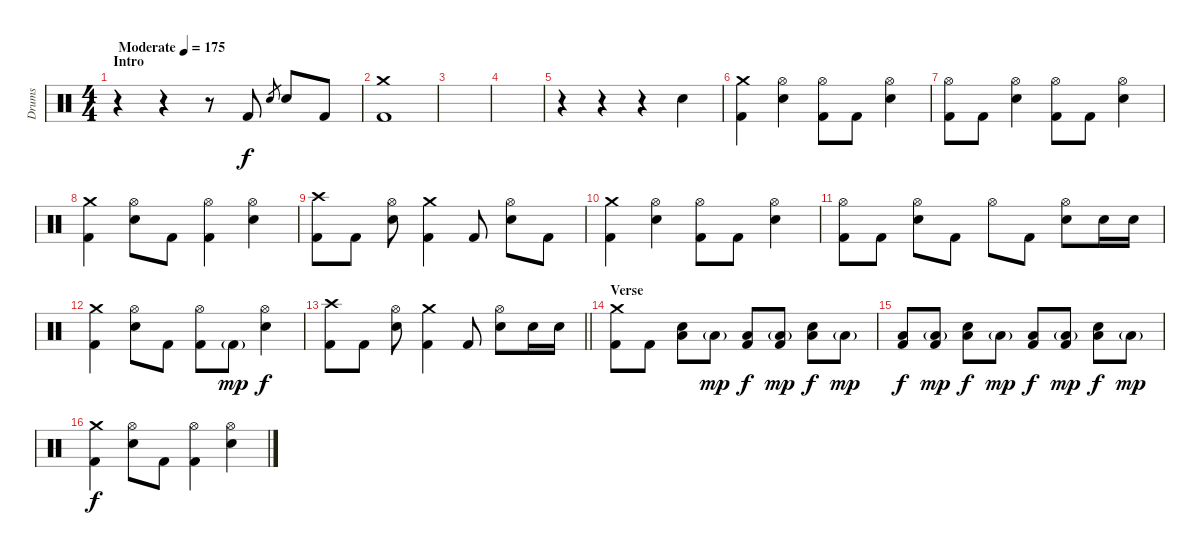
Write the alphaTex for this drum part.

\track ("Drums" "Drums") {instrument percussion}
\staff {score}
\articulation defaults
\ts (4 4)
\section ("" "Intro")
\tempo (175 "Moderate")
\clef neutral
\ks c
r.4{dy f} r.4 r.8 "Kick (hit) 2".8 "Electric Snare (hit)".8{gr} "Electric Snare (hit)".8 "Kick (hit) 2".8 |
("Crash medium (hit)" "Kick (hit) 2").1 |
|
|
r.4 r.4 r.4 "Electric Snare (hit)".4 |
("Crash medium (hit)" "Kick (hit) 2").4 ("Hi-Hat (open)" "Electric Snare (hit)").4 ("Hi-Hat (open)" "Kick (hit) 2").8 "Kick (hit) 2".8 ("Hi-Hat (open)" "Electric Snare (hit)").4 |
("Hi-Hat (open)" "Kick (hit) 2").8 "Kick (hit) 2".8 ("Hi-Hat (open)" "Electric Snare (hit)").4 ("Hi-Hat (open)" "Kick (hit) 2").8 "Kick (hit) 2".8 ("Hi-Hat (open)" "Electric Snare (hit)").4 |
("Crash medium (hit)" "Kick (hit) 2").4 ("Hi-Hat (open)" "Electric Snare (hit)").8 "Kick (hit) 2".8 ("Hi-Hat (open)" "Kick (hit) 2").4 ("Hi-Hat (open)" "Electric Snare (hit)").4 |
("Crash high (hit)" "Kick (hit) 2").8 "Kick (hit) 2".8 ("Hi-Hat (open)" "Electric Snare (hit)").8 ("Crash medium (hit)" "Kick (hit) 2").4 "Kick (hit) 2".8 ("Hi-Hat (open)" "Electric Snare (hit)").8 "Kick (hit) 2".8 |
("Crash medium (hit)" "Kick (hit) 2").4 ("Hi-Hat (open)" "Electric Snare (hit)").4 ("Hi-Hat (open)" "Kick (hit) 2").8 "Kick (hit) 2".8 ("Hi-Hat (open)" "Electric Snare (hit)").4 |
("Hi-Hat (open)" "Kick (hit) 2").8 "Kick (hit) 2".8 ("Hi-Hat (open)" "Electric Snare (hit)").8 "Kick (hit) 2".8 "Hi-Hat (open)".8 "Kick (hit) 2".8 ("Hi-Hat (open)" "Electric Snare (hit)").8 "Electric Snare (hit)".16 "Electric Snare (hit)".16 |
("Crash medium (hit)" "Kick (hit) 2").4 ("Hi-Hat (open)" "Electric Snare (hit)").8 "Kick (hit) 2".8 ("Hi-Hat (open)" "Kick (hit) 2").8 "Kick (hit) 2"{g}.8{dy mp} ("Hi-Hat (open)" "Electric Snare (hit)").4{dy f} |
\barLineRight lightlight
("Crash high (hit)" "Kick (hit) 2").8 "Kick (hit) 2".8 ("Hi-Hat (open)" "Electric Snare (hit)").8 ("Crash medium (hit)" "Kick (hit) 2").4 "Kick (hit) 2".8 ("Hi-Hat (open)" "Electric Snare (hit)").8 "Electric Snare (hit)".16 "Electric Snare (hit)".16 |
\section ("" "Verse")
("Crash medium (hit)" "Kick (hit) 2").8 "Kick (hit) 2".8 ("Low Floor Tom (hit)" "Electric Snare (hit)").8 "Low Floor Tom (hit)"{g}.8{dy mp} ("Low Floor Tom (hit)" "Kick (hit) 2").8{dy f} ("Low Floor Tom (hit)"{g} "Kick (hit) 2").8{dy mp} ("Low Floor Tom (hit)" "Electric Snare (hit)").8{dy f} "Low Floor Tom (hit)"{g}.8{dy mp} |
("Low Floor Tom (hit)" "Kick (hit) 2").8{dy f} ("Low Floor Tom (hit)"{g} "Kick (hit) 2").8{dy mp} ("Low Floor Tom (hit)" "Electric Snare (hit)").8{dy f} "Low Floor Tom (hit)"{g}.8{dy mp} ("Low Floor Tom (hit)" "Kick (hit) 2").8{dy f} ("Low Floor Tom (hit)"{g} "Kick (hit) 2").8{dy mp} ("Low Floor Tom (hit)" "Electric Snare (hit)").8{dy f} "Low Floor Tom (hit)"{g}.8{dy mp} |
("Crash medium (hit)" "Kick (hit) 2").4{dy f} ("Hi-Hat (open)" "Electric Snare (hit)").8 "Kick (hit) 2".8 ("Hi-Hat (open)" "Kick (hit) 2").4 ("Hi-Hat (open)" "Electric Snare (hit)").4
